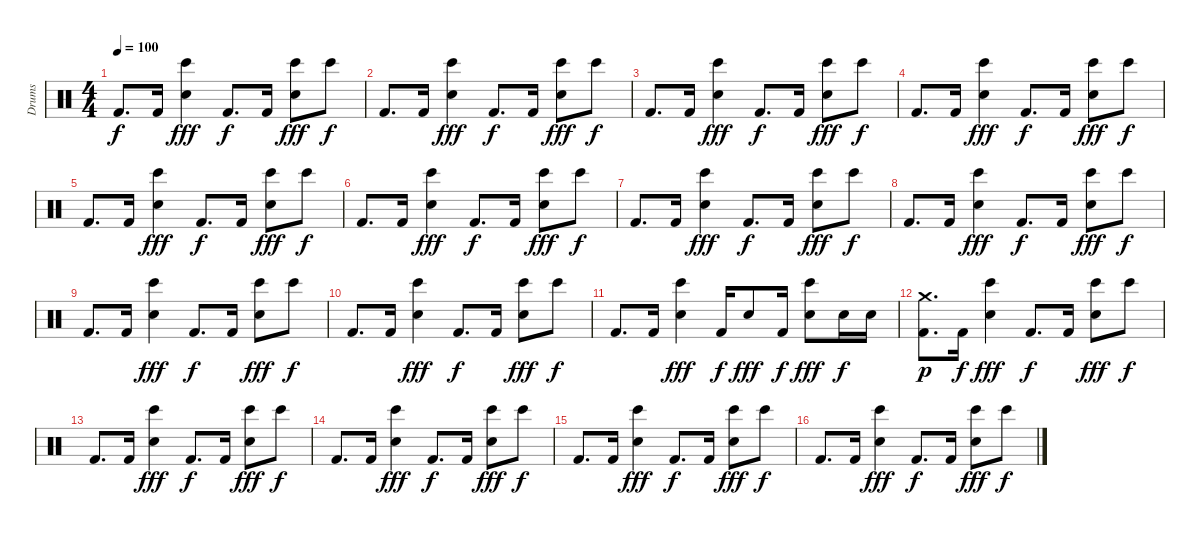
\track ("Drums" "Drums") {instrument percussion}
\staff {score}
\articulation defaults
\ts (4 4)
\tempo 100
\clef neutral
\ks c "Kick (hit) 2".8{d dy f} "Kick (hit) 2".16
("Snare (hit) 2" "Bongo High (hit)").4{dy fff} "Kick (hit) 2".8{d dy f} "Kick (hit) 2".16 ("Snare (hit) 2" "Bongo High (hit)").8{dy fff} "Bongo High (hit)".8{dy f} |
"Kick (hit) 2".8{d} "Kick (hit) 2".16 ("Snare (hit) 2" "Bongo High (hit)").4{dy fff} "Kick (hit) 2".8{d dy f} "Kick (hit) 2".16 ("Snare (hit) 2" "Bongo High (hit)").8{dy fff} "Bongo High (hit)".8{dy f} |
"Kick (hit) 2".8{d} "Kick (hit) 2".16 ("Snare (hit) 2" "Bongo High (hit)").4{dy fff} "Kick (hit) 2".8{d dy f} "Kick (hit) 2".16 ("Snare (hit) 2" "Bongo High (hit)").8{dy fff} "Bongo High (hit)".8{dy f} |
"Kick (hit) 2".8{d} "Kick (hit) 2".16 ("Snare (hit) 2" "Bongo High (hit)").4{dy fff} "Kick (hit) 2".8{d dy f} "Kick (hit) 2".16 ("Snare (hit) 2" "Bongo High (hit)").8{dy fff} "Bongo High (hit)".8{dy f} |
"Kick (hit) 2".8{d} "Kick (hit) 2".16 ("Snare (hit) 2" "Bongo High (hit)").4{dy fff} "Kick (hit) 2".8{d dy f} "Kick (hit) 2".16 ("Snare (hit) 2" "Bongo High (hit)").8{dy fff} "Bongo High (hit)".8{dy f} |
"Kick (hit) 2".8{d} "Kick (hit) 2".16 ("Snare (hit) 2" "Bongo High (hit)").4{dy fff} "Kick (hit) 2".8{d dy f} "Kick (hit) 2".16 ("Snare (hit) 2" "Bongo High (hit)").8{dy fff} "Bongo High (hit)".8{dy f} |
"Kick (hit) 2".8{d} "Kick (hit) 2".16 ("Snare (hit) 2" "Bongo High (hit)").4{dy fff} "Kick (hit) 2".8{d dy f} "Kick (hit) 2".16 ("Snare (hit) 2" "Bongo High (hit)").8{dy fff} "Bongo High (hit)".8{dy f} |
"Kick (hit) 2".8{d} "Kick (hit) 2".16 ("Snare (hit) 2" "Bongo High (hit)").4{dy fff} "Kick (hit) 2".8{d dy f} "Kick (hit) 2".16 ("Snare (hit) 2" "Bongo High (hit)").8{dy fff} "Bongo High (hit)".8{dy f} |
"Kick (hit) 2".8{d} "Kick (hit) 2".16 ("Snare (hit) 2" "Bongo High (hit)").4{dy fff} "Kick (hit) 2".8{d dy f} "Kick (hit) 2".16 ("Snare (hit) 2" "Bongo High (hit)").8{dy fff} "Bongo High (hit)".8{dy f} |
"Kick (hit) 2".8{d} "Kick (hit) 2".16 ("Snare (hit) 2" "Bongo High (hit)").4{dy fff} "Kick (hit) 2".8{d dy f} "Kick (hit) 2".16 ("Snare (hit) 2" "Bongo High (hit)").8{dy fff} "Bongo High (hit)".8{dy f} |
"Kick (hit) 2".8{d} "Kick (hit) 2".16 ("Snare (hit) 2" "Bongo High (hit)").4{dy fff} "Kick (hit) 2".16{dy f} "Snare (hit) 2".8{dy fff} "Kick (hit) 2".16{dy f} ("Snare (hit) 2" "Bongo High (hit)").8{dy fff} "Snare (hit) 2".16{dy f} "Snare (hit) 2".16 |
("Kick (hit) 2" "Crash medium (hit)").8{d dy p} "Kick (hit) 2".16{dy f} ("Snare (hit) 2" "Bongo High (hit)").4{dy fff} "Kick (hit) 2".8{d dy f} "Kick (hit) 2".16 ("Snare (hit) 2" "Bongo High (hit)").8{dy fff} "Bongo High (hit)".8{dy f} |
"Kick (hit) 2".8{d} "Kick (hit) 2".16 ("Snare (hit) 2" "Bongo High (hit)").4{dy fff} "Kick (hit) 2".8{d dy f} "Kick (hit) 2".16 ("Snare (hit) 2" "Bongo High (hit)").8{dy fff} "Bongo High (hit)".8{dy f} |
"Kick (hit) 2".8{d} "Kick (hit) 2".16 ("Snare (hit) 2" "Bongo High (hit)").4{dy fff} "Kick (hit) 2".8{d dy f} "Kick (hit) 2".16 ("Snare (hit) 2" "Bongo High (hit)").8{dy fff} "Bongo High (hit)".8{dy f} |
"Kick (hit) 2".8{d} "Kick (hit) 2".16 ("Snare (hit) 2" "Bongo High (hit)").4{dy fff} "Kick (hit) 2".8{d dy f} "Kick (hit) 2".16 ("Snare (hit) 2" "Bongo High (hit)").8{dy fff} "Bongo High (hit)".8{dy f} |
"Kick (hit) 2".8{d} "Kick (hit) 2".16 ("Snare (hit) 2" "Bongo High (hit)").4{dy fff} "Kick (hit) 2".8{d dy f} "Kick (hit) 2".16 ("Snare (hit) 2" "Bongo High (hit)").8{dy fff} "Bongo High (hit)".8{dy f}
